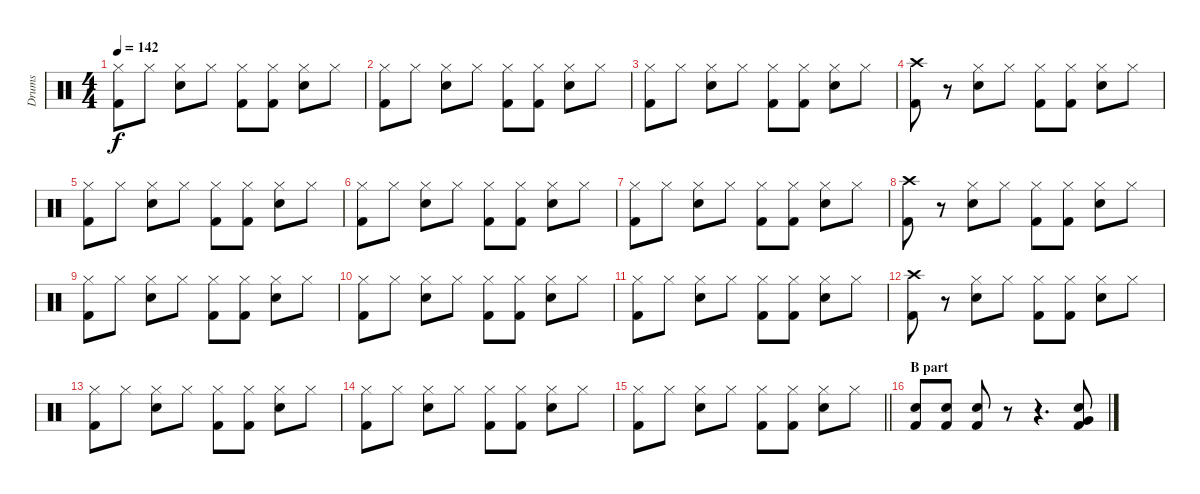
\track ("Drums" "Drums") {instrument percussion}
\staff {score}
\articulation defaults
\ts (4 4)
\tempo 142
\clef neutral
\ks c
("Hi-Hat (closed)" "Kick (hit) 2").8{dy f} "Hi-Hat (closed)".8 ("Hi-Hat (closed)" "Snare (hit) 2").8 "Hi-Hat (closed)".8 ("Hi-Hat (closed)" "Kick (hit) 2").8 ("Hi-Hat (closed)" "Kick (hit) 2").8 ("Hi-Hat (closed)" "Snare (hit) 2").8 "Hi-Hat (closed)".8 |
("Hi-Hat (closed)" "Kick (hit) 2").8 "Hi-Hat (closed)".8 ("Hi-Hat (closed)" "Snare (hit) 2").8 "Hi-Hat (closed)".8 ("Hi-Hat (closed)" "Kick (hit) 2").8 ("Hi-Hat (closed)" "Kick (hit) 2").8 ("Hi-Hat (closed)" "Snare (hit) 2").8 "Hi-Hat (closed)".8 |
("Hi-Hat (closed)" "Kick (hit) 2").8 "Hi-Hat (closed)".8 ("Hi-Hat (closed)" "Snare (hit) 2").8 "Hi-Hat (closed)".8 ("Hi-Hat (closed)" "Kick (hit) 2").8 ("Hi-Hat (closed)" "Kick (hit) 2").8 ("Hi-Hat (closed)" "Snare (hit) 2").8 "Hi-Hat (closed)".8 |
("Crash high (hit)" "Kick (hit) 2").8 r.8 ("Hi-Hat (closed)" "Snare (hit) 2").8 "Hi-Hat (closed)".8 ("Hi-Hat (closed)" "Kick (hit) 2").8 ("Hi-Hat (closed)" "Kick (hit) 2").8 ("Hi-Hat (closed)" "Snare (hit) 2").8 "Hi-Hat (closed)".8 |
("Hi-Hat (closed)" "Kick (hit) 2").8 "Hi-Hat (closed)".8 ("Hi-Hat (closed)" "Snare (hit) 2").8 "Hi-Hat (closed)".8 ("Hi-Hat (closed)" "Kick (hit) 2").8 ("Hi-Hat (closed)" "Kick (hit) 2").8 ("Hi-Hat (closed)" "Snare (hit) 2").8 "Hi-Hat (closed)".8 |
("Hi-Hat (closed)" "Kick (hit) 2").8 "Hi-Hat (closed)".8 ("Hi-Hat (closed)" "Snare (hit) 2").8 "Hi-Hat (closed)".8 ("Hi-Hat (closed)" "Kick (hit) 2").8 ("Hi-Hat (closed)" "Kick (hit) 2").8 ("Hi-Hat (closed)" "Snare (hit) 2").8 "Hi-Hat (closed)".8 |
("Hi-Hat (closed)" "Kick (hit) 2").8 "Hi-Hat (closed)".8 ("Hi-Hat (closed)" "Snare (hit) 2").8 "Hi-Hat (closed)".8 ("Hi-Hat (closed)" "Kick (hit) 2").8 ("Hi-Hat (closed)" "Kick (hit) 2").8 ("Hi-Hat (closed)" "Snare (hit) 2").8 "Hi-Hat (closed)".8 |
("Crash high (hit)" "Kick (hit) 2").8 r.8 ("Hi-Hat (closed)" "Snare (hit) 2").8 "Hi-Hat (closed)".8 ("Hi-Hat (closed)" "Kick (hit) 2").8 ("Hi-Hat (closed)" "Kick (hit) 2").8 ("Hi-Hat (closed)" "Snare (hit) 2").8 "Hi-Hat (closed)".8 |
("Hi-Hat (closed)" "Kick (hit) 2").8 "Hi-Hat (closed)".8 ("Hi-Hat (closed)" "Snare (hit) 2").8 "Hi-Hat (closed)".8 ("Hi-Hat (closed)" "Kick (hit) 2").8 ("Hi-Hat (closed)" "Kick (hit) 2").8 ("Hi-Hat (closed)" "Snare (hit) 2").8 "Hi-Hat (closed)".8 |
("Hi-Hat (closed)" "Kick (hit) 2").8 "Hi-Hat (closed)".8 ("Hi-Hat (closed)" "Snare (hit) 2").8 "Hi-Hat (closed)".8 ("Hi-Hat (closed)" "Kick (hit) 2").8 ("Hi-Hat (closed)" "Kick (hit) 2").8 ("Hi-Hat (closed)" "Snare (hit) 2").8 "Hi-Hat (closed)".8 |
("Hi-Hat (closed)" "Kick (hit) 2").8 "Hi-Hat (closed)".8 ("Hi-Hat (closed)" "Snare (hit) 2").8 "Hi-Hat (closed)".8 ("Hi-Hat (closed)" "Kick (hit) 2").8 ("Hi-Hat (closed)" "Kick (hit) 2").8 ("Hi-Hat (closed)" "Snare (hit) 2").8 "Hi-Hat (closed)".8 |
("Crash high (hit)" "Kick (hit) 2").8 r.8 ("Hi-Hat (closed)" "Snare (hit) 2").8 "Hi-Hat (closed)".8 ("Hi-Hat (closed)" "Kick (hit) 2").8 ("Hi-Hat (closed)" "Kick (hit) 2").8 ("Hi-Hat (closed)" "Snare (hit) 2").8 "Hi-Hat (closed)".8 |
("Hi-Hat (closed)" "Kick (hit) 2").8 "Hi-Hat (closed)".8 ("Hi-Hat (closed)" "Snare (hit) 2").8 "Hi-Hat (closed)".8 ("Hi-Hat (closed)" "Kick (hit) 2").8 ("Hi-Hat (closed)" "Kick (hit) 2").8 ("Hi-Hat (closed)" "Snare (hit) 2").8 "Hi-Hat (closed)".8 |
("Hi-Hat (closed)" "Kick (hit) 2").8 "Hi-Hat (closed)".8 ("Hi-Hat (closed)" "Snare (hit) 2").8 "Hi-Hat (closed)".8 ("Hi-Hat (closed)" "Kick (hit) 2").8 ("Hi-Hat (closed)" "Kick (hit) 2").8 ("Hi-Hat (closed)" "Snare (hit) 2").8 "Hi-Hat (closed)".8 |
\barLineRight lightlight
("Hi-Hat (closed)" "Kick (hit) 2").8 "Hi-Hat (closed)".8 ("Hi-Hat (closed)" "Snare (hit) 2").8 "Hi-Hat (closed)".8 ("Hi-Hat (closed)" "Kick (hit) 2").8 ("Hi-Hat (closed)" "Kick (hit) 2").8 ("Hi-Hat (closed)" "Snare (hit) 2").8 "Hi-Hat (closed)".8 |
\section ("" "B part")
("Snare (hit) 2" "Kick (hit) 2").8 ("Snare (hit) 2" "Kick (hit) 2").8 ("Snare (hit) 2" "Kick (hit) 2").8 r.8 r.4{d} ("Very Low Tom (hit)" "Snare (hit) 2" "Kick (hit) 2").8
